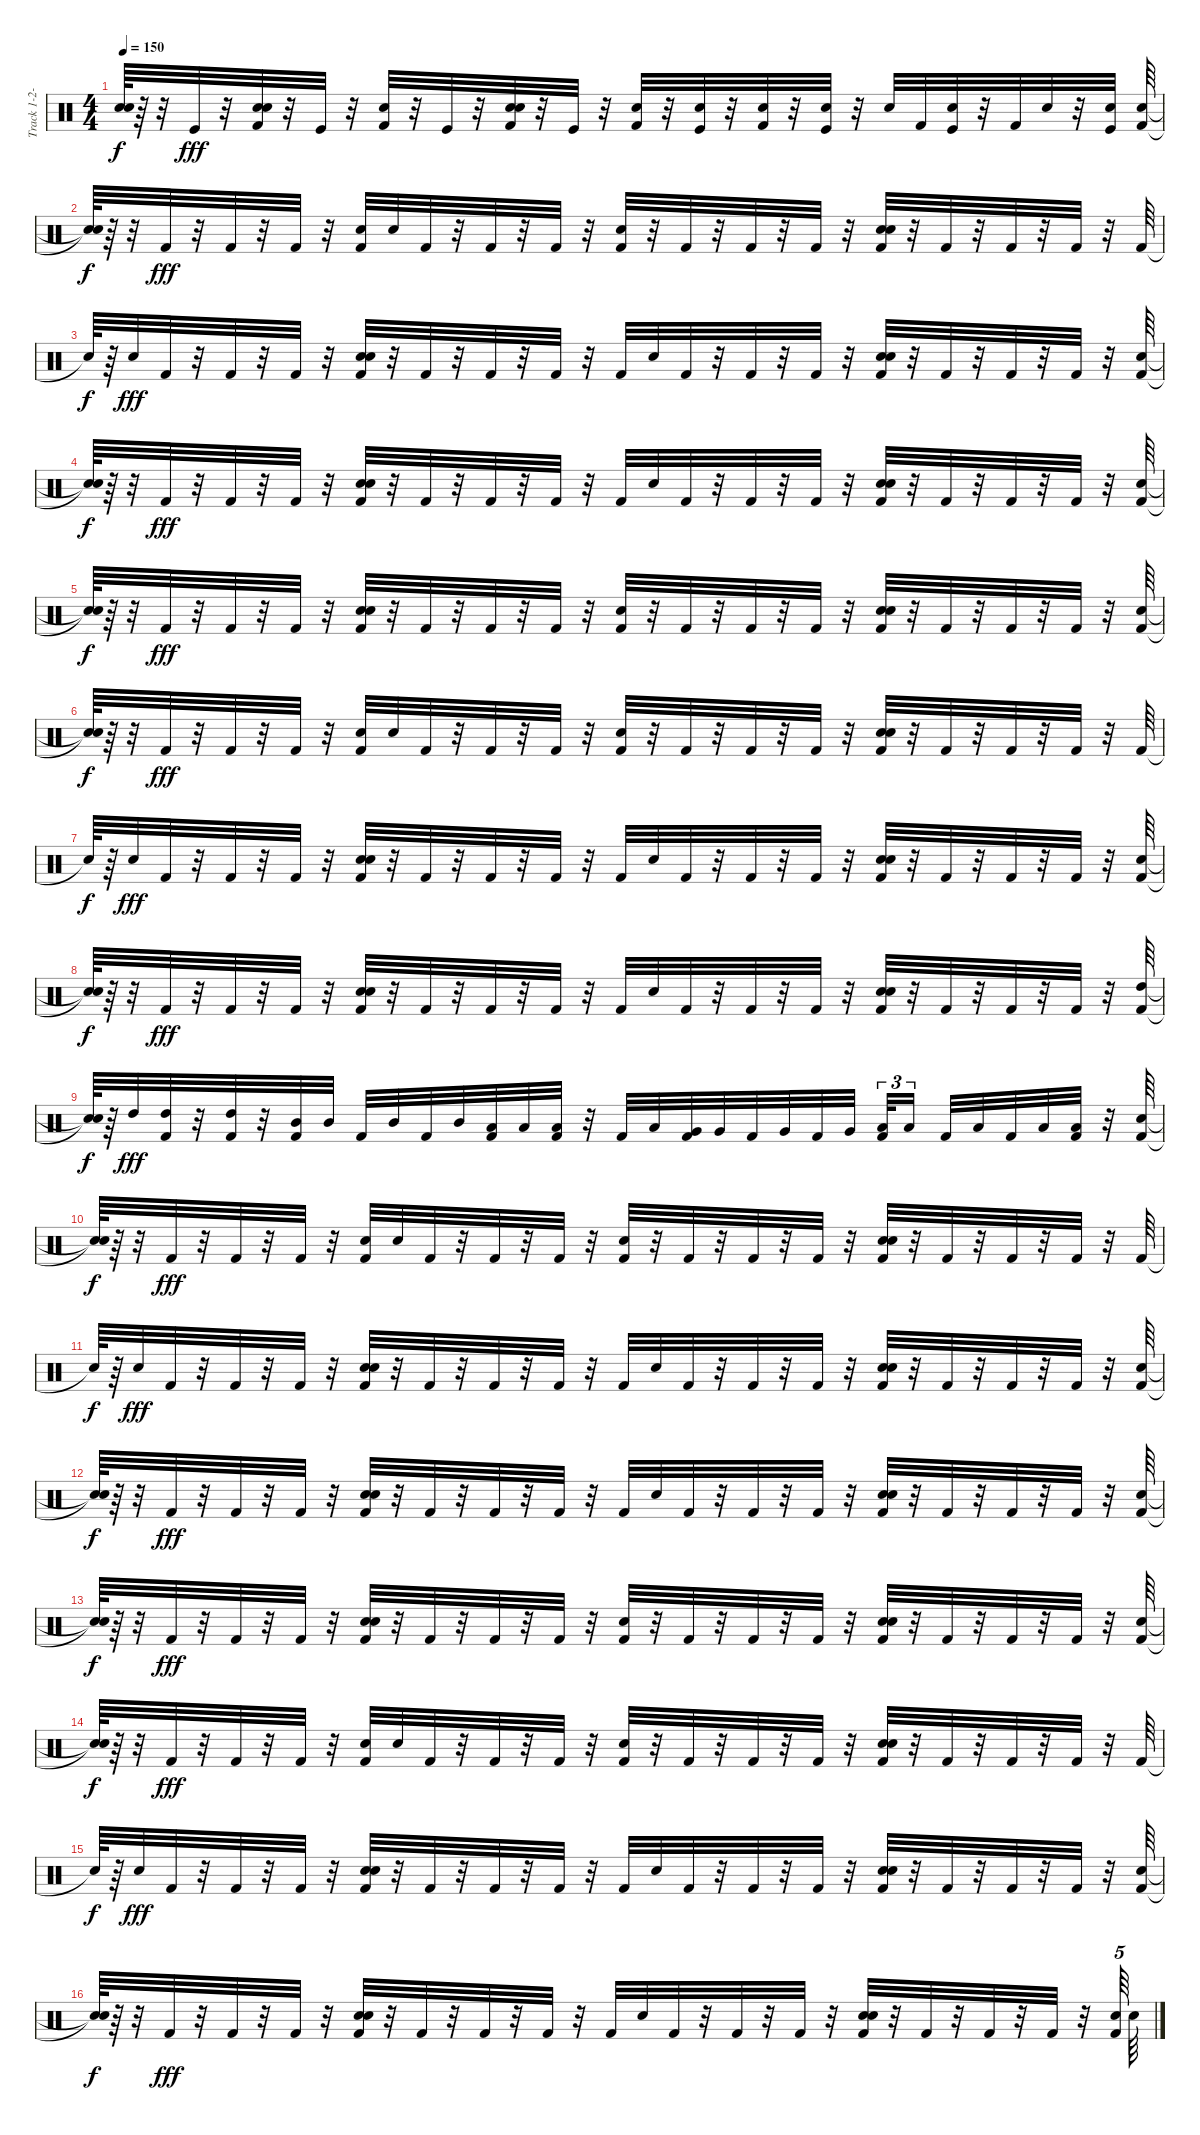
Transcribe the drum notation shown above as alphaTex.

\track ("Track 1-2-3-4-5-6-7-8-9-10-11-12-13-14-1" "Track 1-2-") {instrument percussion}
\staff {score}
\articulation defaults
\ts (4 4)
\tempo 150
\clef neutral
\ks c
("Snare (hit)"{t} "Snare (hit)"{t}).64{dy f} r.64 r.32 "Kick (hit)".32{dy fff} r.32 ("Snare (hit)" "Snare (hit) 2" "Kick (hit) 2").32 r.32 "Kick (hit)".32 r.32 ("Kick (hit) 2" "Snare (hit)").32 r.32 "Kick (hit)".32 r.32 ("Snare (hit) 2" "Snare (hit)" "Kick (hit) 2").32 r.32 "Kick (hit)".32 r.32 ("Snare (hit)" "Kick (hit) 2").32 r.32 ("Kick (hit)" "Snare (hit) 2").32 r.32 ("Snare (hit) 2" "Kick (hit) 2").32 r.32 ("Kick (hit)" "Snare (hit) 2").32 r.32 "Snare (hit) 2".32 "Kick (hit) 2".32 ("Kick (hit)" "Snare (hit) 2").32 r.32 "Kick (hit) 2".32 "Snare (hit) 2".32 r.32 ("Snare (hit) 2" "Kick (hit)").32 ("Kick (hit) 2" "Snare (hit)").64 |
("Snare (hit)"{t} "Snare (hit)"{t}).64{dy f} r.64 r.32 "Kick (hit) 2".32{dy fff} r.32 "Kick (hit) 2".32 r.32 "Kick (hit) 2".32 r.32 ("Snare (hit)" "Kick (hit) 2").32 "Snare (hit) 2".32 "Kick (hit) 2".32 r.32 "Kick (hit) 2".32 r.32 "Kick (hit) 2".32 r.32 ("Kick (hit) 2" "Snare (hit)").32 r.32 "Kick (hit) 2".32 r.32 "Kick (hit) 2".32 r.32 "Kick (hit) 2".32 r.32 ("Snare (hit)" "Kick (hit) 2" "Snare (hit) 2").32 r.32 "Kick (hit) 2".32 r.32 "Kick (hit) 2".32 r.32 "Kick (hit) 2".32 r.32 "Kick (hit) 2".64 |
"Snare (hit)"{t}.64{dy f} r.64 "Snare (hit)".32{dy fff} "Kick (hit) 2".32 r.32 "Kick (hit) 2".32 r.32 "Kick (hit) 2".32 r.32 ("Snare (hit)" "Kick (hit) 2" "Snare (hit) 2").32 r.32 "Kick (hit) 2".32 r.32 "Kick (hit) 2".32 r.32 "Kick (hit) 2".32 r.32 "Kick (hit) 2".32 "Snare (hit)".32 "Kick (hit) 2".32 r.32 "Kick (hit) 2".32 r.32 "Kick (hit) 2".32 r.32 ("Snare (hit) 2" "Snare (hit)" "Kick (hit) 2").32 r.32 "Kick (hit) 2".32 r.32 "Kick (hit) 2".32 r.32 "Kick (hit) 2".32 r.32 ("Kick (hit) 2" "Snare (hit)").64 |
("Snare (hit)"{t} "Snare (hit)"{t}).64{dy f} r.64 r.32 "Kick (hit) 2".32{dy fff} r.32 "Kick (hit) 2".32 r.32 "Kick (hit) 2".32 r.32 ("Snare (hit)" "Snare (hit) 2" "Kick (hit) 2").32 r.32 "Kick (hit) 2".32 r.32 "Kick (hit) 2".32 r.32 "Kick (hit) 2".32 r.32 "Kick (hit) 2".32 "Snare (hit)".32 "Kick (hit) 2".32 r.32 "Kick (hit) 2".32 r.32 "Kick (hit) 2".32 r.32 ("Snare (hit) 2" "Snare (hit)" "Kick (hit) 2").32 r.32 "Kick (hit) 2".32 r.32 "Kick (hit) 2".32 r.32 "Kick (hit) 2".32 r.32 ("Kick (hit) 2" "Snare (hit)").64 |
("Snare (hit)"{t} "Snare (hit)"{t}).64{dy f} r.64 r.32 "Kick (hit) 2".32{dy fff} r.32 "Kick (hit) 2".32 r.32 "Kick (hit) 2".32 r.32 ("Snare (hit)" "Kick (hit) 2" "Snare (hit) 2").32 r.32 "Kick (hit) 2".32 r.32 "Kick (hit) 2".32 r.32 "Kick (hit) 2".32 r.32 ("Kick (hit) 2" "Snare (hit)").32 r.32 "Kick (hit) 2".32 r.32 "Kick (hit) 2".32 r.32 "Kick (hit) 2".32 r.32 ("Snare (hit)" "Snare (hit) 2" "Kick (hit) 2").32 r.32 "Kick (hit) 2".32 r.32 "Kick (hit) 2".32 r.32 "Kick (hit) 2".32 r.32 ("Kick (hit) 2" "Snare (hit)").64 |
("Snare (hit)"{t} "Snare (hit)"{t}).64{dy f} r.64 r.32 "Kick (hit) 2".32{dy fff} r.32 "Kick (hit) 2".32 r.32 "Kick (hit) 2".32 r.32 ("Snare (hit)" "Kick (hit) 2").32 "Snare (hit) 2".32 "Kick (hit) 2".32 r.32 "Kick (hit) 2".32 r.32 "Kick (hit) 2".32 r.32 ("Kick (hit) 2" "Snare (hit)").32 r.32 "Kick (hit) 2".32 r.32 "Kick (hit) 2".32 r.32 "Kick (hit) 2".32 r.32 ("Snare (hit)" "Kick (hit) 2" "Snare (hit) 2").32 r.32 "Kick (hit) 2".32 r.32 "Kick (hit) 2".32 r.32 "Kick (hit) 2".32 r.32 "Kick (hit) 2".64 |
"Snare (hit)"{t}.64{dy f} r.64 "Snare (hit)".32{dy fff} "Kick (hit) 2".32 r.32 "Kick (hit) 2".32 r.32 "Kick (hit) 2".32 r.32 ("Snare (hit)" "Kick (hit) 2" "Snare (hit) 2").32 r.32 "Kick (hit) 2".32 r.32 "Kick (hit) 2".32 r.32 "Kick (hit) 2".32 r.32 "Kick (hit) 2".32 "Snare (hit)".32 "Kick (hit) 2".32 r.32 "Kick (hit) 2".32 r.32 "Kick (hit) 2".32 r.32 ("Snare (hit) 2" "Snare (hit)" "Kick (hit) 2").32 r.32 "Kick (hit) 2".32 r.32 "Kick (hit) 2".32 r.32 "Kick (hit) 2".32 r.32 ("Kick (hit) 2" "Snare (hit)").64 |
("Snare (hit)"{t} "Snare (hit)"{t}).64{dy f} r.64 r.32 "Kick (hit) 2".32{dy fff} r.32 "Kick (hit) 2".32 r.32 "Kick (hit) 2".32 r.32 ("Snare (hit)" "Snare (hit) 2" "Kick (hit) 2").32 r.32 "Kick (hit) 2".32 r.32 "Kick (hit) 2".32 r.32 "Kick (hit) 2".32 r.32 "Kick (hit) 2".32 "Snare (hit)".32 "Kick (hit) 2".32 r.32 "Kick (hit) 2".32 r.32 "Kick (hit) 2".32 r.32 ("Snare (hit) 2" "Snare (hit)" "Kick (hit) 2").32 r.32 "Kick (hit) 2".32 r.32 "Kick (hit) 2".32 r.32 "Kick (hit) 2".32 r.32 ("Kick (hit) 2" "High Tom (hit)").64 |
("Snare (hit)"{t} "Snare (hit)"{t}).64{dy f} r.64 "High Tom (hit)".32{dy fff} ("High Tom (hit)" "Kick (hit) 2").32 r.32 ("High Tom (hit)" "Kick (hit) 2").32 r.32 ("Mid Tom (hit)" "Kick (hit) 2").32 "Mid Tom (hit)".32 "Kick (hit) 2".32 "Mid Tom (hit)".32 "Kick (hit) 2".32 "Mid Tom (hit)".32 ("Low Tom (hit)" "Kick (hit) 2").32 "Low Tom (hit)".32 ("Kick (hit) 2" "Low Tom (hit)").32 r.32 "Kick (hit) 2".32 "Low Tom (hit)".32 ("Very Low Tom (hit)" "Kick (hit) 2").32 "Very Low Tom (hit)".32 "Kick (hit) 2".32 "Very Low Tom (hit)".32 "Kick (hit) 2".32 "Very Low Tom (hit)".32 ("Kick (hit) 2" "Low Floor Tom (hit)").32{tu (3 2)} "Low Floor Tom (hit)".16{tu (3 2) beam splitsecondary} "Kick (hit) 2".32 "Low Floor Tom (hit)".32 "Kick (hit) 2".32 "Low Floor Tom (hit)".32 ("Low Floor Tom (hit)" "Kick (hit) 2").32 r.32 ("Kick (hit) 2" "Snare (hit)").64 |
("Snare (hit)"{t} "Snare (hit)"{t}).64{dy f} r.64 r.32 "Kick (hit) 2".32{dy fff} r.32 "Kick (hit) 2".32 r.32 "Kick (hit) 2".32 r.32 ("Snare (hit)" "Kick (hit) 2").32 "Snare (hit) 2".32 "Kick (hit) 2".32 r.32 "Kick (hit) 2".32 r.32 "Kick (hit) 2".32 r.32 ("Kick (hit) 2" "Snare (hit)").32 r.32 "Kick (hit) 2".32 r.32 "Kick (hit) 2".32 r.32 "Kick (hit) 2".32 r.32 ("Snare (hit)" "Kick (hit) 2" "Snare (hit) 2").32 r.32 "Kick (hit) 2".32 r.32 "Kick (hit) 2".32 r.32 "Kick (hit) 2".32 r.32 "Kick (hit) 2".64 |
"Snare (hit)"{t}.64{dy f} r.64 "Snare (hit)".32{dy fff} "Kick (hit) 2".32 r.32 "Kick (hit) 2".32 r.32 "Kick (hit) 2".32 r.32 ("Snare (hit)" "Kick (hit) 2" "Snare (hit) 2").32 r.32 "Kick (hit) 2".32 r.32 "Kick (hit) 2".32 r.32 "Kick (hit) 2".32 r.32 "Kick (hit) 2".32 "Snare (hit)".32 "Kick (hit) 2".32 r.32 "Kick (hit) 2".32 r.32 "Kick (hit) 2".32 r.32 ("Snare (hit) 2" "Snare (hit)" "Kick (hit) 2").32 r.32 "Kick (hit) 2".32 r.32 "Kick (hit) 2".32 r.32 "Kick (hit) 2".32 r.32 ("Kick (hit) 2" "Snare (hit)").64 |
("Snare (hit)"{t} "Snare (hit)"{t}).64{dy f} r.64 r.32 "Kick (hit) 2".32{dy fff} r.32 "Kick (hit) 2".32 r.32 "Kick (hit) 2".32 r.32 ("Snare (hit)" "Snare (hit) 2" "Kick (hit) 2").32 r.32 "Kick (hit) 2".32 r.32 "Kick (hit) 2".32 r.32 "Kick (hit) 2".32 r.32 "Kick (hit) 2".32 "Snare (hit)".32 "Kick (hit) 2".32 r.32 "Kick (hit) 2".32 r.32 "Kick (hit) 2".32 r.32 ("Snare (hit) 2" "Snare (hit)" "Kick (hit) 2").32 r.32 "Kick (hit) 2".32 r.32 "Kick (hit) 2".32 r.32 "Kick (hit) 2".32 r.32 ("Kick (hit) 2" "Snare (hit)").64 |
("Snare (hit)"{t} "Snare (hit)"{t}).64{dy f} r.64 r.32 "Kick (hit) 2".32{dy fff} r.32 "Kick (hit) 2".32 r.32 "Kick (hit) 2".32 r.32 ("Snare (hit)" "Kick (hit) 2" "Snare (hit) 2").32 r.32 "Kick (hit) 2".32 r.32 "Kick (hit) 2".32 r.32 "Kick (hit) 2".32 r.32 ("Kick (hit) 2" "Snare (hit)").32 r.32 "Kick (hit) 2".32 r.32 "Kick (hit) 2".32 r.32 "Kick (hit) 2".32 r.32 ("Snare (hit)" "Snare (hit) 2" "Kick (hit) 2").32 r.32 "Kick (hit) 2".32 r.32 "Kick (hit) 2".32 r.32 "Kick (hit) 2".32 r.32 ("Kick (hit) 2" "Snare (hit)").64 |
("Snare (hit)"{t} "Snare (hit)"{t}).64{dy f} r.64 r.32 "Kick (hit) 2".32{dy fff} r.32 "Kick (hit) 2".32 r.32 "Kick (hit) 2".32 r.32 ("Snare (hit)" "Kick (hit) 2").32 "Snare (hit) 2".32 "Kick (hit) 2".32 r.32 "Kick (hit) 2".32 r.32 "Kick (hit) 2".32 r.32 ("Kick (hit) 2" "Snare (hit)").32 r.32 "Kick (hit) 2".32 r.32 "Kick (hit) 2".32 r.32 "Kick (hit) 2".32 r.32 ("Snare (hit)" "Kick (hit) 2" "Snare (hit) 2").32 r.32 "Kick (hit) 2".32 r.32 "Kick (hit) 2".32 r.32 "Kick (hit) 2".32 r.32 "Kick (hit) 2".64 |
"Snare (hit)"{t}.64{dy f} r.64 "Snare (hit)".32{dy fff} "Kick (hit) 2".32 r.32 "Kick (hit) 2".32 r.32 "Kick (hit) 2".32 r.32 ("Snare (hit)" "Kick (hit) 2" "Snare (hit) 2").32 r.32 "Kick (hit) 2".32 r.32 "Kick (hit) 2".32 r.32 "Kick (hit) 2".32 r.32 "Kick (hit) 2".32 "Snare (hit)".32 "Kick (hit) 2".32 r.32 "Kick (hit) 2".32 r.32 "Kick (hit) 2".32 r.32 ("Snare (hit) 2" "Snare (hit)" "Kick (hit) 2").32 r.32 "Kick (hit) 2".32 r.32 "Kick (hit) 2".32 r.32 "Kick (hit) 2".32 r.32 ("Kick (hit) 2" "Snare (hit)").64 |
("Snare (hit)"{t} "Snare (hit)"{t}).64{dy f} r.64 r.32 "Kick (hit) 2".32{dy fff} r.32 "Kick (hit) 2".32 r.32 "Kick (hit) 2".32 r.32 ("Snare (hit)" "Snare (hit) 2" "Kick (hit) 2").32 r.32 "Kick (hit) 2".32 r.32 "Kick (hit) 2".32 r.32 "Kick (hit) 2".32 r.32 "Kick (hit) 2".32 "Snare (hit)".32 "Kick (hit) 2".32 r.32 "Kick (hit) 2".32 r.32 "Kick (hit) 2".32 r.32 ("Snare (hit) 2" "Snare (hit)" "Kick (hit) 2").32 r.32 "Kick (hit) 2".32 r.32 "Kick (hit) 2".32 r.32 "Kick (hit) 2".32 r.32 ("Kick (hit) 2" "Snare (hit) 2").64{tu (5 4)} "Snare (hit) 2".64
